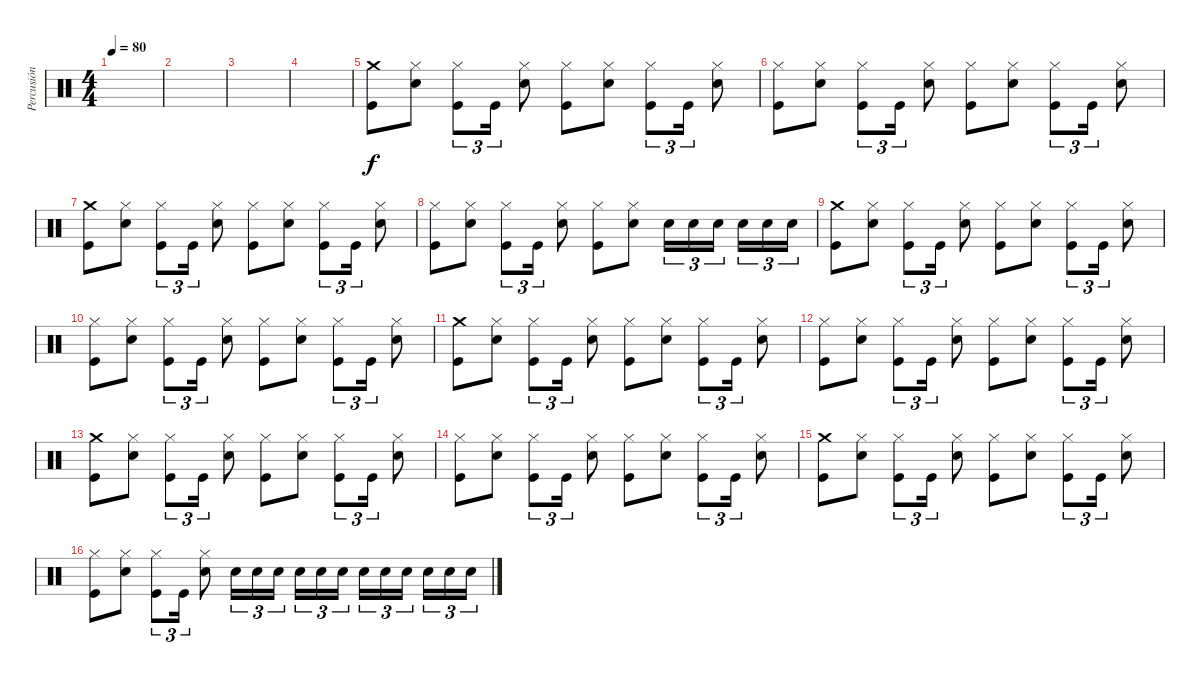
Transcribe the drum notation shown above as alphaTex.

\track ("Percusión" "Percusión") {mute instrument percussion}
\staff {score}
\articulation defaults
\ts (4 4)
\tempo 80
\clef neutral
\ks c
|
|
|
|
("Crash medium (hit)" "Kick (hit)").8 ("Hi-Hat (closed)" "Snare (hit) 2").8 ("Hi-Hat (closed)" "Kick (hit)").8{tu (3 2)} "Kick (hit)".16{tu (3 2)} ("Hi-Hat (closed)" "Snare (hit) 2").8 ("Hi-Hat (closed)" "Kick (hit)").8 ("Hi-Hat (closed)" "Snare (hit) 2").8 ("Hi-Hat (closed)" "Kick (hit)").8{tu (3 2)} "Kick (hit)".16{tu (3 2)} ("Hi-Hat (closed)" "Snare (hit) 2").8 |
("Hi-Hat (closed)" "Kick (hit)").8 ("Hi-Hat (closed)" "Snare (hit) 2").8 ("Hi-Hat (closed)" "Kick (hit)").8{tu (3 2)} "Kick (hit)".16{tu (3 2)} ("Hi-Hat (closed)" "Snare (hit) 2").8 ("Hi-Hat (closed)" "Kick (hit)").8 ("Hi-Hat (closed)" "Snare (hit) 2").8 ("Hi-Hat (closed)" "Kick (hit)").8{tu (3 2)} "Kick (hit)".16{tu (3 2)} ("Hi-Hat (closed)" "Snare (hit) 2").8 |
("Crash medium (hit)" "Kick (hit)").8 ("Hi-Hat (closed)" "Snare (hit) 2").8 ("Hi-Hat (closed)" "Kick (hit)").8{tu (3 2)} "Kick (hit)".16{tu (3 2)} ("Hi-Hat (closed)" "Snare (hit) 2").8 ("Hi-Hat (closed)" "Kick (hit)").8 ("Hi-Hat (closed)" "Snare (hit) 2").8 ("Hi-Hat (closed)" "Kick (hit)").8{tu (3 2)} "Kick (hit)".16{tu (3 2)} ("Hi-Hat (closed)" "Snare (hit) 2").8 |
("Hi-Hat (closed)" "Kick (hit)").8 ("Hi-Hat (closed)" "Snare (hit) 2").8 ("Hi-Hat (closed)" "Kick (hit)").8{tu (3 2)} "Kick (hit)".16{tu (3 2)} ("Hi-Hat (closed)" "Snare (hit) 2").8 ("Hi-Hat (closed)" "Kick (hit)").8 ("Hi-Hat (closed)" "Snare (hit) 2").8 "Snare (hit) 2".16{tu (3 2)} "Snare (hit) 2".16{tu (3 2)} "Snare (hit) 2".16{tu (3 2) beam splitsecondary} "Snare (hit) 2".16{tu (3 2)} "Snare (hit) 2".16{tu (3 2)} "Snare (hit) 2".16{tu (3 2)} |
("Crash medium (hit)" "Kick (hit)").8 ("Hi-Hat (closed)" "Snare (hit) 2").8 ("Hi-Hat (closed)" "Kick (hit)").8{tu (3 2)} "Kick (hit)".16{tu (3 2)} ("Hi-Hat (closed)" "Snare (hit) 2").8 ("Hi-Hat (closed)" "Kick (hit)").8 ("Hi-Hat (closed)" "Snare (hit) 2").8 ("Hi-Hat (closed)" "Kick (hit)").8{tu (3 2)} "Kick (hit)".16{tu (3 2)} ("Hi-Hat (closed)" "Snare (hit) 2").8 |
("Hi-Hat (closed)" "Kick (hit)").8 ("Hi-Hat (closed)" "Snare (hit) 2").8 ("Hi-Hat (closed)" "Kick (hit)").8{tu (3 2)} "Kick (hit)".16{tu (3 2)} ("Hi-Hat (closed)" "Snare (hit) 2").8 ("Hi-Hat (closed)" "Kick (hit)").8 ("Hi-Hat (closed)" "Snare (hit) 2").8 ("Hi-Hat (closed)" "Kick (hit)").8{tu (3 2)} "Kick (hit)".16{tu (3 2)} ("Hi-Hat (closed)" "Snare (hit) 2").8 |
("Crash medium (hit)" "Kick (hit)").8 ("Hi-Hat (closed)" "Snare (hit) 2").8 ("Hi-Hat (closed)" "Kick (hit)").8{tu (3 2)} "Kick (hit)".16{tu (3 2)} ("Hi-Hat (closed)" "Snare (hit) 2").8 ("Hi-Hat (closed)" "Kick (hit)").8 ("Hi-Hat (closed)" "Snare (hit) 2").8 ("Hi-Hat (closed)" "Kick (hit)").8{tu (3 2)} "Kick (hit)".16{tu (3 2)} ("Hi-Hat (closed)" "Snare (hit) 2").8 |
("Hi-Hat (closed)" "Kick (hit)").8 ("Hi-Hat (closed)" "Snare (hit) 2").8 ("Hi-Hat (closed)" "Kick (hit)").8{tu (3 2)} "Kick (hit)".16{tu (3 2)} ("Hi-Hat (closed)" "Snare (hit) 2").8 ("Hi-Hat (closed)" "Kick (hit)").8 ("Hi-Hat (closed)" "Snare (hit) 2").8 ("Hi-Hat (closed)" "Kick (hit)").8{tu (3 2)} "Kick (hit)".16{tu (3 2)} ("Hi-Hat (closed)" "Snare (hit) 2").8 |
("Crash medium (hit)" "Kick (hit)").8 ("Hi-Hat (closed)" "Snare (hit) 2").8 ("Hi-Hat (closed)" "Kick (hit)").8{tu (3 2)} "Kick (hit)".16{tu (3 2)} ("Hi-Hat (closed)" "Snare (hit) 2").8 ("Hi-Hat (closed)" "Kick (hit)").8 ("Hi-Hat (closed)" "Snare (hit) 2").8 ("Hi-Hat (closed)" "Kick (hit)").8{tu (3 2)} "Kick (hit)".16{tu (3 2)} ("Hi-Hat (closed)" "Snare (hit) 2").8 |
("Hi-Hat (closed)" "Kick (hit)").8 ("Hi-Hat (closed)" "Snare (hit) 2").8 ("Hi-Hat (closed)" "Kick (hit)").8{tu (3 2)} "Kick (hit)".16{tu (3 2)} ("Hi-Hat (closed)" "Snare (hit) 2").8 ("Hi-Hat (closed)" "Kick (hit)").8 ("Hi-Hat (closed)" "Snare (hit) 2").8 ("Hi-Hat (closed)" "Kick (hit)").8{tu (3 2)} "Kick (hit)".16{tu (3 2)} ("Hi-Hat (closed)" "Snare (hit) 2").8 |
("Crash medium (hit)" "Kick (hit)").8 ("Hi-Hat (closed)" "Snare (hit) 2").8 ("Hi-Hat (closed)" "Kick (hit)").8{tu (3 2)} "Kick (hit)".16{tu (3 2)} ("Hi-Hat (closed)" "Snare (hit) 2").8 ("Hi-Hat (closed)" "Kick (hit)").8 ("Hi-Hat (closed)" "Snare (hit) 2").8 ("Hi-Hat (closed)" "Kick (hit)").8{tu (3 2)} "Kick (hit)".16{tu (3 2)} ("Hi-Hat (closed)" "Snare (hit) 2").8 |
("Hi-Hat (closed)" "Kick (hit)").8 ("Hi-Hat (closed)" "Snare (hit) 2").8 ("Hi-Hat (closed)" "Kick (hit)").8{tu (3 2)} "Kick (hit)".16{tu (3 2)} ("Hi-Hat (closed)" "Snare (hit) 2").8 "Snare (hit) 2".16{tu (3 2)} "Snare (hit) 2".16{tu (3 2)} "Snare (hit) 2".16{tu (3 2) beam splitsecondary} "Snare (hit) 2".16{tu (3 2)} "Snare (hit) 2".16{tu (3 2)} "Snare (hit) 2".16{tu (3 2)} "Snare (hit) 2".16{tu (3 2)} "Snare (hit) 2".16{tu (3 2)} "Snare (hit) 2".16{tu (3 2) beam splitsecondary} "Snare (hit) 2".16{tu (3 2)} "Snare (hit) 2".16{tu (3 2)} "Snare (hit) 2".16{tu (3 2)}
